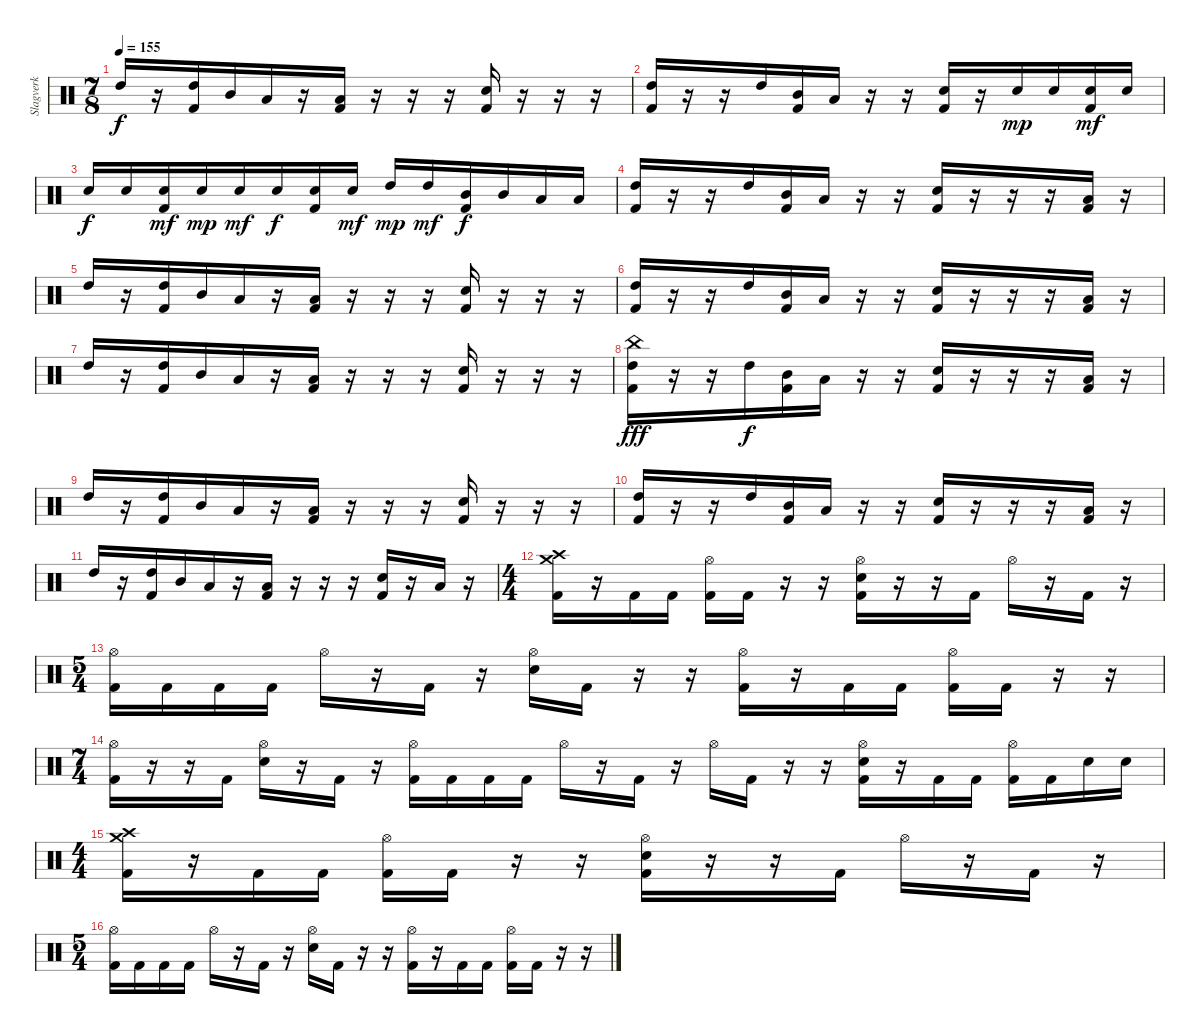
\track ("Slagverk" "Slagverk") {instrument percussion}
\staff {score}
\articulation defaults
\ts (7 8)
\tempo 155
\clef neutral
\ks c "High Tom (hit)".16{dy f}
r.16 ("Kick (hit) 2" "High Tom (hit)").16 "Mid Tom (hit)".16 "Low Tom (hit)".16 r.16 ("Kick (hit) 2" "Low Tom (hit)").16 r.16 r.16 r.16 ("Kick (hit) 2" "Electric Snare (hit)").16 r.16 r.16 r.16 |
("Kick (hit) 2" "High Tom (hit)").16 r.16 r.16 "High Tom (hit)".16 ("Kick (hit) 2" "Mid Tom (hit)").16 "Low Tom (hit)".16 r.16 r.16 ("Kick (hit) 2" "Electric Snare (hit)").16 r.16 "Electric Snare (hit)".16{dy mp} "Electric Snare (hit)".16 ("Kick (hit) 2" "Electric Snare (hit)").16{dy mf} "Electric Snare (hit)".16 |
"Electric Snare (hit)".16{dy f} "Electric Snare (hit)".16 ("Kick (hit) 2" "Electric Snare (hit)").16{dy mf} "Electric Snare (hit)".16{dy mp} "Electric Snare (hit)".16{dy mf} "Electric Snare (hit)".16{dy f} ("Kick (hit) 2" "Electric Snare (hit)").16 "Electric Snare (hit)".16{dy mf} "High Tom (hit)".16{dy mp} "High Tom (hit)".16{dy mf} ("Kick (hit) 2" "Mid Tom (hit)").16{dy f} "Mid Tom (hit)".16 "Low Tom (hit)".16 "Low Tom (hit)".16 |
("Kick (hit) 2" "High Tom (hit)").16 r.16 r.16 "High Tom (hit)".16 ("Kick (hit) 2" "Mid Tom (hit)").16 "Low Tom (hit)".16 r.16 r.16 ("Kick (hit) 2" "Electric Snare (hit)").16 r.16 r.16 r.16 ("Kick (hit) 2" "Low Tom (hit)").16 r.16 |
"High Tom (hit)".16 r.16 ("Kick (hit) 2" "High Tom (hit)").16 "Mid Tom (hit)".16 "Low Tom (hit)".16 r.16 ("Kick (hit) 2" "Low Tom (hit)").16 r.16 r.16 r.16 ("Kick (hit) 2" "Electric Snare (hit)").16 r.16 r.16 r.16 |
("Kick (hit) 2" "High Tom (hit)").16 r.16 r.16 "High Tom (hit)".16 ("Kick (hit) 2" "Mid Tom (hit)").16 "Low Tom (hit)".16 r.16 r.16 ("Kick (hit) 2" "Electric Snare (hit)").16 r.16 r.16 r.16 ("Kick (hit) 2" "Low Tom (hit)").16 r.16 |
"High Tom (hit)".16 r.16 ("Kick (hit) 2" "High Tom (hit)").16 "Mid Tom (hit)".16 "Low Tom (hit)".16 r.16 ("Kick (hit) 2" "Low Tom (hit)").16 r.16 r.16 r.16 ("Kick (hit) 2" "Electric Snare (hit)").16 r.16 r.16 r.16 |
("Kick (hit) 2" "High Tom (hit)" "China (hit)").16{dy fff} r.16 r.16 "High Tom (hit)".16{dy f} ("Kick (hit) 2" "Mid Tom (hit)").16 "Low Tom (hit)".16 r.16 r.16 ("Kick (hit) 2" "Electric Snare (hit)").16 r.16 r.16 r.16 ("Kick (hit) 2" "Low Tom (hit)").16 r.16 |
"High Tom (hit)".16 r.16 ("Kick (hit) 2" "High Tom (hit)").16 "Mid Tom (hit)".16 "Low Tom (hit)".16 r.16 ("Kick (hit) 2" "Low Tom (hit)").16 r.16 r.16 r.16 ("Kick (hit) 2" "Electric Snare (hit)").16 r.16 r.16 r.16 |
("Kick (hit) 2" "High Tom (hit)").16 r.16 r.16 "High Tom (hit)".16 ("Kick (hit) 2" "Mid Tom (hit)").16 "Low Tom (hit)".16 r.16 r.16 ("Kick (hit) 2" "Electric Snare (hit)").16 r.16 r.16 r.16 ("Kick (hit) 2" "Low Tom (hit)").16 r.16 |
"High Tom (hit)".16 r.16 ("Kick (hit) 2" "High Tom (hit)").16 "Mid Tom (hit)".16 "Low Tom (hit)".16 r.16 ("Kick (hit) 2" "Low Tom (hit)").16 r.16 r.16 r.16 ("Kick (hit) 2" "Electric Snare (hit)").16 r.16 "Low Tom (hit)".16 r.16 |
\ts (4 4)
("Kick (hit) 2" "Crash medium (hit)" "Crash high (hit)").16 r.16 "Kick (hit) 2".16 "Kick (hit) 2".16 ("Kick (hit) 2" "Hi-Hat (open)").16 "Kick (hit) 2".16 r.16 r.16 ("Kick (hit) 2" "Electric Snare (hit)" "Hi-Hat (open)").16 r.16 r.16 "Kick (hit) 2".16 "Hi-Hat (open)".16 r.16 "Kick (hit) 2".16 r.16 |
\ts (5 4)
("Kick (hit) 2" "Hi-Hat (open)").16 "Kick (hit) 2".16 "Kick (hit) 2".16 "Kick (hit) 2".16 "Hi-Hat (open)".16 r.16 "Kick (hit) 2".16 r.16 ("Electric Snare (hit)" "Hi-Hat (open)").16 "Kick (hit) 2".16 r.16 r.16 ("Kick (hit) 2" "Hi-Hat (open)").16 r.16 "Kick (hit) 2".16 "Kick (hit) 2".16 ("Kick (hit) 2" "Hi-Hat (open)").16 "Kick (hit) 2".16 r.16 r.16 |
\ts (7 4)
("Kick (hit) 2" "Hi-Hat (open)").16 r.16 r.16 "Kick (hit) 2".16 ("Electric Snare (hit)" "Hi-Hat (open)").16 r.16 "Kick (hit) 2".16 r.16 ("Kick (hit) 2" "Hi-Hat (open)").16 "Kick (hit) 2".16 "Kick (hit) 2".16 "Kick (hit) 2".16 "Hi-Hat (open)".16 r.16 "Kick (hit) 2".16 r.16 "Hi-Hat (open)".16 "Kick (hit) 2".16 r.16 r.16 ("Kick (hit) 2" "Electric Snare (hit)" "Hi-Hat (open)").16 r.16 "Kick (hit) 2".16 "Kick (hit) 2".16 ("Kick (hit) 2" "Hi-Hat (open)").16 "Kick (hit) 2".16 "Electric Snare (hit)".16 "Electric Snare (hit)".16 |
\ts (4 4)
("Kick (hit) 2" "Crash medium (hit)" "Crash high (hit)").16 r.16 "Kick (hit) 2".16 "Kick (hit) 2".16 ("Kick (hit) 2" "Hi-Hat (open)").16 "Kick (hit) 2".16 r.16 r.16 ("Kick (hit) 2" "Electric Snare (hit)" "Hi-Hat (open)").16 r.16 r.16 "Kick (hit) 2".16 "Hi-Hat (open)".16 r.16 "Kick (hit) 2".16 r.16 |
\ts (5 4)
("Kick (hit) 2" "Hi-Hat (open)").16 "Kick (hit) 2".16 "Kick (hit) 2".16 "Kick (hit) 2".16 "Hi-Hat (open)".16 r.16 "Kick (hit) 2".16 r.16 ("Electric Snare (hit)" "Hi-Hat (open)").16 "Kick (hit) 2".16 r.16 r.16 ("Kick (hit) 2" "Hi-Hat (open)").16 r.16 "Kick (hit) 2".16 "Kick (hit) 2".16 ("Kick (hit) 2" "Hi-Hat (open)").16 "Kick (hit) 2".16 r.16 r.16
